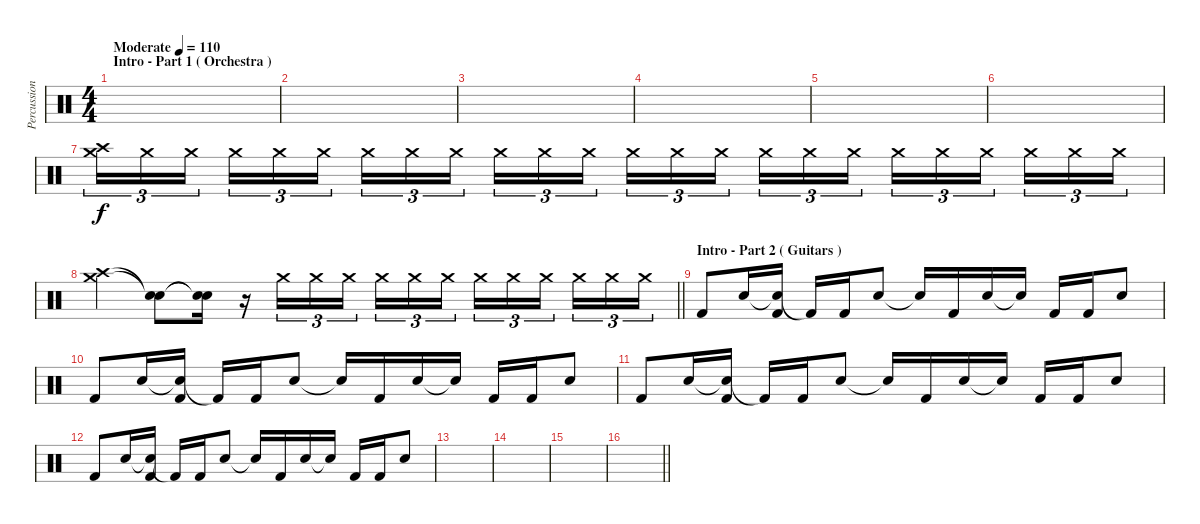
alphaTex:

\track ("Percussion" "Percussion") {instrument percussion}
\staff {score}
\articulation defaults
\ts (4 4)
\section ("" "Intro - Part 1 ( Orchestra )")
\tempo (110 "Moderate")
\clef neutral
\ks c
|
|
|
|
|
|
("Crash high (hit)" "Crash medium (hit)").16{tu (3 2) volume 16} "Crash medium (hit)".16{tu (3 2)} "Crash medium (hit)".16{tu (3 2) beam splitsecondary} "Crash medium (hit)".16{tu (3 2)} "Crash medium (hit)".16{tu (3 2)} "Crash medium (hit)".16{tu (3 2)} "Crash medium (hit)".16{tu (3 2)} "Crash medium (hit)".16{tu (3 2)} "Crash medium (hit)".16{tu (3 2) beam splitsecondary} "Crash medium (hit)".16{tu (3 2)} "Crash medium (hit)".16{tu (3 2)} "Crash medium (hit)".16{tu (3 2)} "Crash medium (hit)".16{tu (3 2)} "Crash medium (hit)".16{tu (3 2)} "Crash medium (hit)".16{tu (3 2) beam splitsecondary} "Crash medium (hit)".16{tu (3 2)} "Crash medium (hit)".16{tu (3 2)} "Crash medium (hit)".16{tu (3 2)} "Crash medium (hit)".16{tu (3 2)} "Crash medium (hit)".16{tu (3 2)} "Crash medium (hit)".16{tu (3 2) beam splitsecondary} "Crash medium (hit)".16{tu (3 2)} "Crash medium (hit)".16{tu (3 2)} "Crash medium (hit)".16{tu (3 2)} |
\barLineRight lightlight
("Crash high (hit)" "Crash medium (hit)").4 ("Snare (hit)"{t} "Snare (hit)"{t}).8 ("Snare (hit)"{t} "Snare (hit)"{t}).16 r.16{volume 0} "Crash medium (hit)".16{tu (3 2) volume 16} "Crash medium (hit)".16{tu (3 2)} "Crash medium (hit)".16{tu (3 2) beam splitsecondary} "Crash medium (hit)".16{tu (3 2)} "Crash medium (hit)".16{tu (3 2)} "Crash medium (hit)".16{tu (3 2)} "Crash medium (hit)".16{tu (3 2)} "Crash medium (hit)".16{tu (3 2)} "Crash medium (hit)".16{tu (3 2) beam splitsecondary} "Crash medium (hit)".16{tu (3 2)} "Crash medium (hit)".16{tu (3 2)} "Crash medium (hit)".16{tu (3 2)} |
\section ("" "Intro - Part 2 ( Guitars )")
"Kick (hit) 2".8 "Snare (hit) 2".16 ("Snare (hit)"{t} "Kick (hit) 2").16 "Kick (hit) 2"{t}.16 "Kick (hit) 2".16 "Snare (hit) 2".8 "Snare (hit) 2"{t}.16 "Kick (hit) 2".16 "Snare (hit) 2".16 "Snare (hit) 2"{t}.16 "Kick (hit) 2".16 "Kick (hit) 2".16 "Snare (hit) 2".8 |
"Kick (hit) 2".8 "Snare (hit) 2".16 ("Snare (hit)"{t} "Kick (hit) 2").16 "Kick (hit) 2"{t}.16 "Kick (hit) 2".16 "Snare (hit) 2".8 "Snare (hit) 2"{t}.16 "Kick (hit) 2".16 "Snare (hit) 2".16 "Snare (hit) 2"{t}.16 "Kick (hit) 2".16 "Kick (hit) 2".16 "Snare (hit) 2".8 |
"Kick (hit) 2".8 "Snare (hit) 2".16 ("Snare (hit)"{t} "Kick (hit) 2").16 "Kick (hit) 2"{t}.16 "Kick (hit) 2".16 "Snare (hit) 2".8 "Snare (hit) 2"{t}.16 "Kick (hit) 2".16 "Snare (hit) 2".16 "Snare (hit) 2"{t}.16 "Kick (hit) 2".16 "Kick (hit) 2".16 "Snare (hit) 2".8 |
"Kick (hit) 2".8 "Snare (hit) 2".16 ("Snare (hit)"{t} "Kick (hit) 2").16 "Kick (hit) 2"{t}.16 "Kick (hit) 2".16 "Snare (hit) 2".8 "Snare (hit) 2"{t}.16 "Kick (hit) 2".16 "Snare (hit) 2".16 "Snare (hit) 2"{t}.16 "Kick (hit) 2".16 "Kick (hit) 2".16 "Snare (hit) 2".8 |
|
|
|
\barLineRight lightlight
